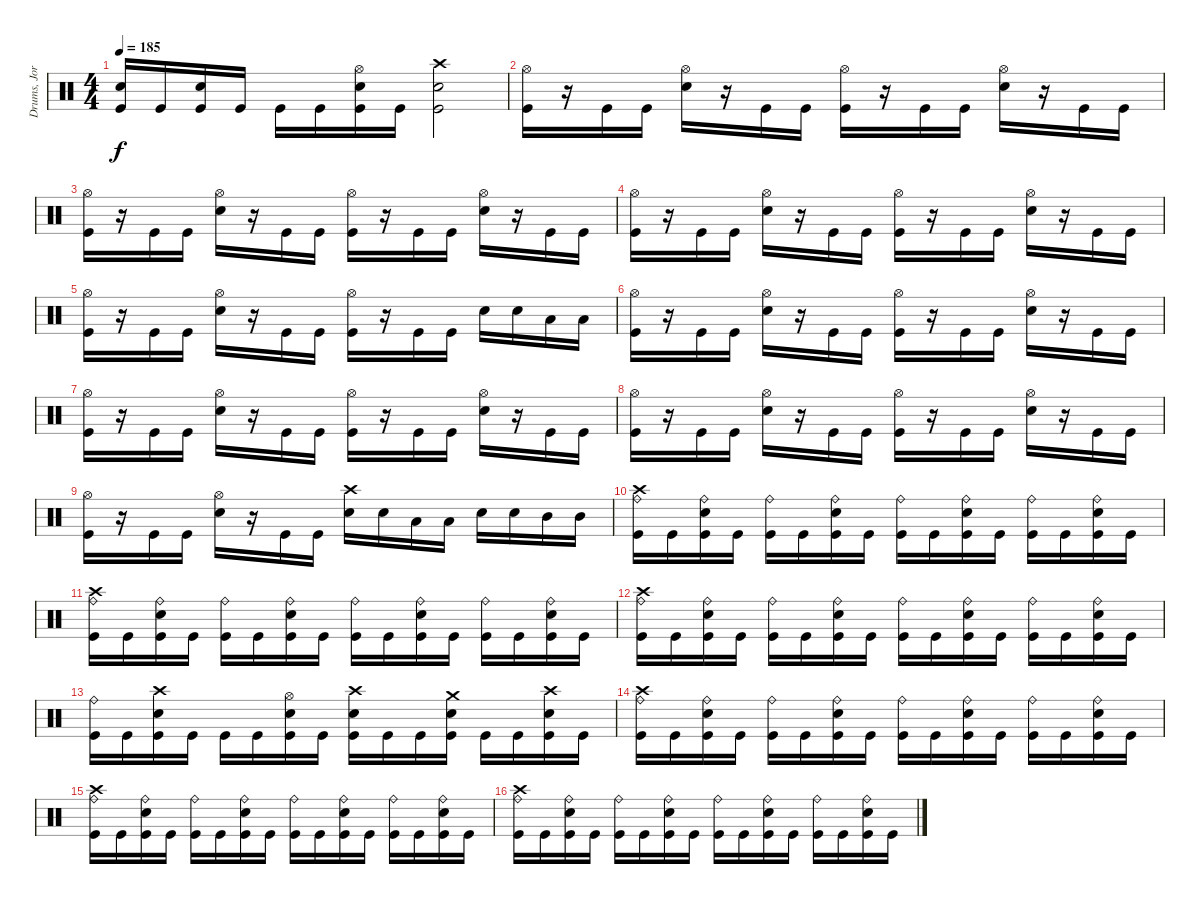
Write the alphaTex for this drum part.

\track ("Drums, Jorye Sáez" "Drums, Jor") {instrument percussion}
\staff {score}
\articulation defaults
\ts (4 4)
\tempo 185
\clef neutral
\ks c
("Kick (hit)" "Electric Snare (hit)").16{dy f} "Kick (hit)".16 ("Kick (hit)" "Electric Snare (hit)").16 "Kick (hit)".16 "Kick (hit)".16 "Kick (hit)".16 ("Kick (hit)" "Electric Snare (hit)" "Hi-Hat (open)").16 "Kick (hit)".16 ("Kick (hit)" "Electric Snare (hit)" "Crash high (hit)").2 |
("Kick (hit)" "Hi-Hat (open)").16 r.16 "Kick (hit)".16 "Kick (hit)".16 ("Electric Snare (hit)" "Hi-Hat (open)").16 r.16 "Kick (hit)".16 "Kick (hit)".16 ("Kick (hit)" "Hi-Hat (open)").16 r.16 "Kick (hit)".16 "Kick (hit)".16 ("Electric Snare (hit)" "Hi-Hat (open)").16 r.16 "Kick (hit)".16 "Kick (hit)".16 |
("Kick (hit)" "Hi-Hat (open)").16 r.16 "Kick (hit)".16 "Kick (hit)".16 ("Electric Snare (hit)" "Hi-Hat (open)").16 r.16 "Kick (hit)".16 "Kick (hit)".16 ("Kick (hit)" "Hi-Hat (open)").16 r.16 "Kick (hit)".16 "Kick (hit)".16 ("Electric Snare (hit)" "Hi-Hat (open)").16 r.16 "Kick (hit)".16 "Kick (hit)".16 |
("Kick (hit)" "Hi-Hat (open)").16 r.16 "Kick (hit)".16 "Kick (hit)".16 ("Electric Snare (hit)" "Hi-Hat (open)").16 r.16 "Kick (hit)".16 "Kick (hit)".16 ("Kick (hit)" "Hi-Hat (open)").16 r.16 "Kick (hit)".16 "Kick (hit)".16 ("Electric Snare (hit)" "Hi-Hat (open)").16 r.16 "Kick (hit)".16 "Kick (hit)".16 |
("Kick (hit)" "Hi-Hat (open)").16 r.16 "Kick (hit)".16 "Kick (hit)".16 ("Electric Snare (hit)" "Hi-Hat (open)").16 r.16 "Kick (hit)".16 "Kick (hit)".16 ("Kick (hit)" "Hi-Hat (open)").16 r.16 "Kick (hit)".16 "Kick (hit)".16 "Electric Snare (hit)".16 "Electric Snare (hit)".16 "Low Tom (hit)".16 "Low Tom (hit)".16 |
("Kick (hit)" "Hi-Hat (open)").16 r.16 "Kick (hit)".16 "Kick (hit)".16 ("Electric Snare (hit)" "Hi-Hat (open)").16 r.16 "Kick (hit)".16 "Kick (hit)".16 ("Kick (hit)" "Hi-Hat (open)").16 r.16 "Kick (hit)".16 "Kick (hit)".16 ("Electric Snare (hit)" "Hi-Hat (open)").16 r.16 "Kick (hit)".16 "Kick (hit)".16 |
("Kick (hit)" "Hi-Hat (open)").16 r.16 "Kick (hit)".16 "Kick (hit)".16 ("Electric Snare (hit)" "Hi-Hat (open)").16 r.16 "Kick (hit)".16 "Kick (hit)".16 ("Kick (hit)" "Hi-Hat (open)").16 r.16 "Kick (hit)".16 "Kick (hit)".16 ("Electric Snare (hit)" "Hi-Hat (open)").16 r.16 "Kick (hit)".16 "Kick (hit)".16 |
("Kick (hit)" "Hi-Hat (open)").16 r.16 "Kick (hit)".16 "Kick (hit)".16 ("Electric Snare (hit)" "Hi-Hat (open)").16 r.16 "Kick (hit)".16 "Kick (hit)".16 ("Kick (hit)" "Hi-Hat (open)").16 r.16 "Kick (hit)".16 "Kick (hit)".16 ("Electric Snare (hit)" "Hi-Hat (open)").16 r.16 "Kick (hit)".16 "Kick (hit)".16 |
("Kick (hit)" "Hi-Hat (open)").16 r.16 "Kick (hit)".16 "Kick (hit)".16 ("Electric Snare (hit)" "Hi-Hat (open)").16 r.16 "Kick (hit)".16 "Kick (hit)".16 ("Electric Snare (hit)" "Crash high (hit)").16 "Electric Snare (hit)".16 "Low Tom (hit)".16 "Low Tom (hit)".16 "Electric Snare (hit)".16 "Electric Snare (hit)".16 "Mid Tom (hit)".16 "Mid Tom (hit)".16 |
("Kick (hit)" "Ride (bell)" "Crash high (hit)").16 "Kick (hit)".16 ("Kick (hit)" "Electric Snare (hit)" "Ride (bell)").16 "Kick (hit)".16 ("Kick (hit)" "Ride (bell)").16 "Kick (hit)".16 ("Kick (hit)" "Electric Snare (hit)" "Ride (bell)").16 "Kick (hit)".16 ("Kick (hit)" "Ride (bell)").16 "Kick (hit)".16 ("Kick (hit)" "Electric Snare (hit)" "Ride (bell)").16 "Kick (hit)".16 ("Kick (hit)" "Ride (bell)").16 "Kick (hit)".16 ("Kick (hit)" "Electric Snare (hit)" "Ride (bell)").16 "Kick (hit)".16 |
("Kick (hit)" "Ride (bell)" "Crash high (hit)").16 "Kick (hit)".16 ("Kick (hit)" "Electric Snare (hit)" "Ride (bell)").16 "Kick (hit)".16 ("Kick (hit)" "Ride (bell)").16 "Kick (hit)".16 ("Kick (hit)" "Electric Snare (hit)" "Ride (bell)").16 "Kick (hit)".16 ("Kick (hit)" "Ride (bell)").16 "Kick (hit)".16 ("Kick (hit)" "Electric Snare (hit)" "Ride (bell)").16 "Kick (hit)".16 ("Kick (hit)" "Ride (bell)").16 "Kick (hit)".16 ("Kick (hit)" "Electric Snare (hit)" "Ride (bell)").16 "Kick (hit)".16 |
("Kick (hit)" "Ride (bell)" "Crash high (hit)").16 "Kick (hit)".16 ("Kick (hit)" "Electric Snare (hit)" "Ride (bell)").16 "Kick (hit)".16 ("Kick (hit)" "Ride (bell)").16 "Kick (hit)".16 ("Kick (hit)" "Electric Snare (hit)" "Ride (bell)").16 "Kick (hit)".16 ("Kick (hit)" "Ride (bell)").16 "Kick (hit)".16 ("Kick (hit)" "Electric Snare (hit)" "Ride (bell)").16 "Kick (hit)".16 ("Kick (hit)" "Ride (bell)").16 "Kick (hit)".16 ("Kick (hit)" "Electric Snare (hit)" "Ride (bell)").16 "Kick (hit)".16 |
("Kick (hit)" "Ride (bell)").16 "Kick (hit)".16 ("Kick (hit)" "Electric Snare (hit)" "Crash high (hit)").16 "Kick (hit)".16 "Kick (hit)".16 "Kick (hit)".16 ("Kick (hit)" "Electric Snare (hit)" "Hi-Hat (open)").16 "Kick (hit)".16 ("Kick (hit)" "Electric Snare (hit)" "Crash high (hit)").16 "Kick (hit)".16 "Kick (hit)".16 ("Kick (hit)" "Electric Snare (hit)" "Crash medium (hit)").16 "Kick (hit)".16 "Kick (hit)".16 ("Kick (hit)" "Electric Snare (hit)" "Crash high (hit)").16 "Kick (hit)".16 |
("Kick (hit)" "Ride (bell)" "Crash high (hit)").16 "Kick (hit)".16 ("Kick (hit)" "Electric Snare (hit)" "Ride (bell)").16 "Kick (hit)".16 ("Kick (hit)" "Ride (bell)").16 "Kick (hit)".16 ("Kick (hit)" "Electric Snare (hit)" "Ride (bell)").16 "Kick (hit)".16 ("Kick (hit)" "Ride (bell)").16 "Kick (hit)".16 ("Kick (hit)" "Electric Snare (hit)" "Ride (bell)").16 "Kick (hit)".16 ("Kick (hit)" "Ride (bell)").16 "Kick (hit)".16 ("Kick (hit)" "Electric Snare (hit)" "Ride (bell)").16 "Kick (hit)".16 |
("Kick (hit)" "Ride (bell)" "Crash high (hit)").16 "Kick (hit)".16 ("Kick (hit)" "Electric Snare (hit)" "Ride (bell)").16 "Kick (hit)".16 ("Kick (hit)" "Ride (bell)").16 "Kick (hit)".16 ("Kick (hit)" "Electric Snare (hit)" "Ride (bell)").16 "Kick (hit)".16 ("Kick (hit)" "Ride (bell)").16 "Kick (hit)".16 ("Kick (hit)" "Electric Snare (hit)" "Ride (bell)").16 "Kick (hit)".16 ("Kick (hit)" "Ride (bell)").16 "Kick (hit)".16 ("Kick (hit)" "Electric Snare (hit)" "Ride (bell)").16 "Kick (hit)".16 |
("Kick (hit)" "Ride (bell)" "Crash high (hit)").16 "Kick (hit)".16 ("Kick (hit)" "Electric Snare (hit)" "Ride (bell)").16 "Kick (hit)".16 ("Kick (hit)" "Ride (bell)").16 "Kick (hit)".16 ("Kick (hit)" "Electric Snare (hit)" "Ride (bell)").16 "Kick (hit)".16 ("Kick (hit)" "Ride (bell)").16 "Kick (hit)".16 ("Kick (hit)" "Electric Snare (hit)" "Ride (bell)").16 "Kick (hit)".16 ("Kick (hit)" "Ride (bell)").16 "Kick (hit)".16 ("Kick (hit)" "Electric Snare (hit)" "Ride (bell)").16 "Kick (hit)".16
